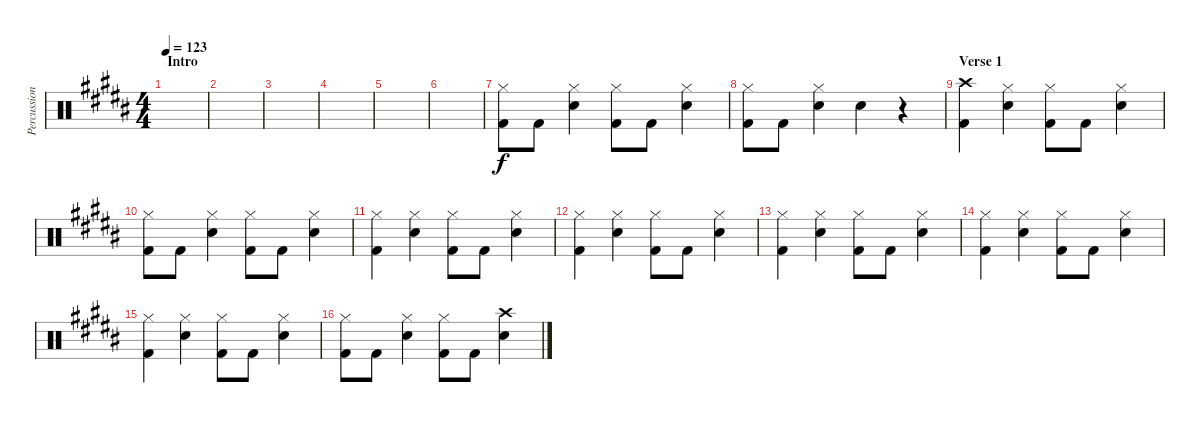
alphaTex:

\track ("Percussion" "Percussion") {instrument percussion}
\staff {score}
\articulation defaults
\ts (4 4)
\section ("" "Intro")
\tempo 123
\clef neutral
\ks b
|
|
|
|
|
|
("Hi-Hat (closed)" "Kick (hit) 2").8 "Kick (hit) 2".8 ("Hi-Hat (closed)" "Snare (hit) 2").4 ("Hi-Hat (closed)" "Kick (hit) 2").8 "Kick (hit) 2".8 ("Hi-Hat (closed)" "Snare (hit) 2").4 |
("Hi-Hat (closed)" "Kick (hit) 2").8 "Kick (hit) 2".8 ("Hi-Hat (closed)" "Snare (hit) 2").4 "Snare (hit) 2".4 r.4 |
\section ("" "Verse 1")
("Crash high (hit)" "Kick (hit) 2").4 ("Hi-Hat (closed)" "Snare (hit) 2").4 ("Hi-Hat (closed)" "Kick (hit) 2").8 "Kick (hit) 2".8 ("Hi-Hat (closed)" "Snare (hit) 2").4 |
("Hi-Hat (closed)" "Kick (hit) 2").8 "Kick (hit) 2".8 ("Hi-Hat (closed)" "Snare (hit) 2").4 ("Hi-Hat (closed)" "Kick (hit) 2").8 "Kick (hit) 2".8 ("Hi-Hat (closed)" "Snare (hit) 2").4 |
("Hi-Hat (closed)" "Kick (hit) 2").4 ("Hi-Hat (closed)" "Snare (hit) 2").4 ("Hi-Hat (closed)" "Kick (hit) 2").8 "Kick (hit) 2".8 ("Hi-Hat (closed)" "Snare (hit) 2").4 |
("Hi-Hat (closed)" "Kick (hit) 2").4 ("Hi-Hat (closed)" "Snare (hit) 2").4 ("Hi-Hat (closed)" "Kick (hit) 2").8 "Kick (hit) 2".8 ("Hi-Hat (closed)" "Snare (hit) 2").4 |
("Hi-Hat (closed)" "Kick (hit) 2").4 ("Hi-Hat (closed)" "Snare (hit) 2").4 ("Hi-Hat (closed)" "Kick (hit) 2").8 "Kick (hit) 2".8 ("Hi-Hat (closed)" "Snare (hit) 2").4 |
("Hi-Hat (closed)" "Kick (hit) 2").4 ("Hi-Hat (closed)" "Snare (hit) 2").4 ("Hi-Hat (closed)" "Kick (hit) 2").8 "Kick (hit) 2".8 ("Hi-Hat (closed)" "Snare (hit) 2").4 |
("Hi-Hat (closed)" "Kick (hit) 2").4 ("Hi-Hat (closed)" "Snare (hit) 2").4 ("Hi-Hat (closed)" "Kick (hit) 2").8 "Kick (hit) 2".8 ("Hi-Hat (closed)" "Snare (hit) 2").4 |
("Hi-Hat (closed)" "Kick (hit) 2").8 "Kick (hit) 2".8 ("Hi-Hat (closed)" "Snare (hit) 2").4 ("Hi-Hat (closed)" "Kick (hit) 2").8 "Kick (hit) 2".8 ("Crash high (hit)" "Snare (hit) 2").4
